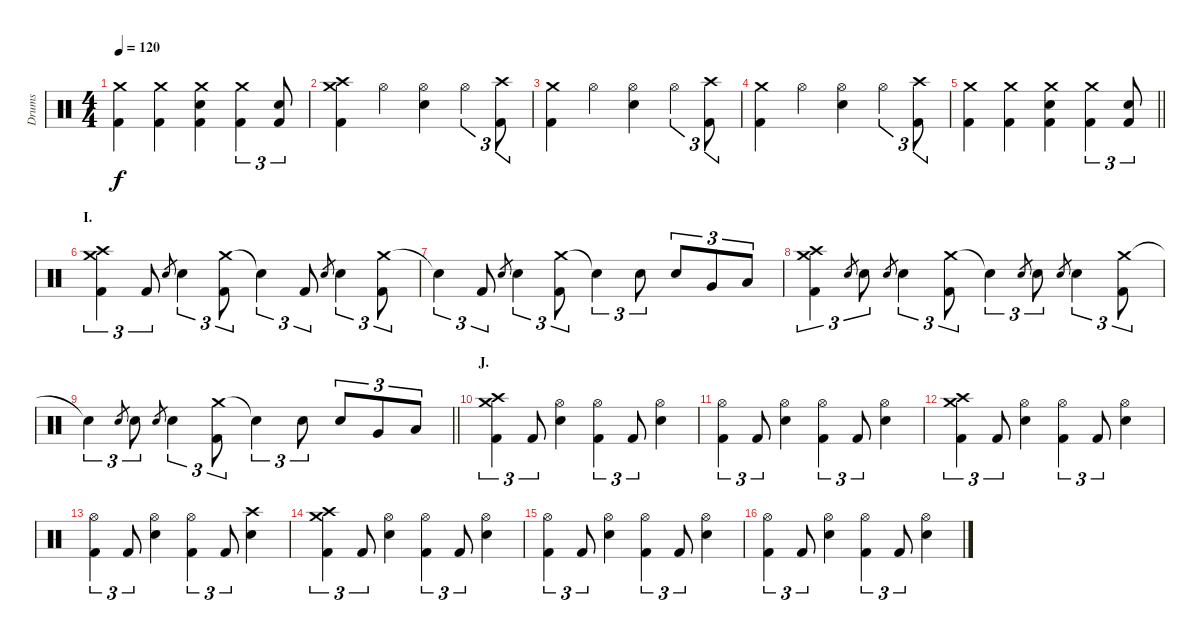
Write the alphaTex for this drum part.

\track ("Drums" "Drums") {instrument percussion}
\staff {score}
\articulation defaults
\ts (4 4)
\tempo 120
\clef neutral
\ks c
("Crash medium (hit)" "Kick (hit) 2").4{dy f} ("Crash medium (hit)" "Kick (hit) 2").4 ("Crash medium (hit)" "Electric Snare (hit)" "Kick (hit) 2").4 ("Crash medium (hit)" "Kick (hit) 2").4{tu (3 2)} ("Electric Snare (hit)" "Kick (hit) 2").8{tu (3 2)} |
("Crash medium (hit)" "Crash high (hit)" "Kick (hit) 2").4 "Hi-Hat (open)".4 ("Hi-Hat (open)" "Electric Snare (hit)").4 "Hi-Hat (open)".4{tu (3 2)} ("Crash high (hit)" "Kick (hit) 2").8{tu (3 2)} |
("Crash medium (hit)" "Kick (hit) 2").4 "Hi-Hat (open)".4 ("Hi-Hat (open)" "Electric Snare (hit)").4 "Hi-Hat (open)".4{tu (3 2)} ("Crash high (hit)" "Kick (hit) 2").8{tu (3 2)} |
("Crash medium (hit)" "Kick (hit) 2").4 "Hi-Hat (open)".4 ("Hi-Hat (open)" "Electric Snare (hit)").4 "Hi-Hat (open)".4{tu (3 2)} ("Crash high (hit)" "Kick (hit) 2").8{tu (3 2)} |
\barLineRight lightlight
("Crash medium (hit)" "Kick (hit) 2").4 ("Crash medium (hit)" "Kick (hit) 2").4 ("Crash medium (hit)" "Electric Snare (hit)" "Kick (hit) 2").4 ("Crash medium (hit)" "Kick (hit) 2").4{tu (3 2)} ("Electric Snare (hit)" "Kick (hit) 2").8{tu (3 2)} |
\section ("" "I.")
("Crash medium (hit)" "Crash high (hit)" "Kick (hit) 2").4{tu (3 2)} "Kick (hit) 2".8{tu (3 2)} "Electric Snare (hit)".8{gr} "Electric Snare (hit)".4{tu (3 2)} ("Crash medium (hit)" "Kick (hit) 2").8{tu (3 2)} "Snare (hit)"{t}.4{tu (3 2)} "Kick (hit) 2".8{tu (3 2)} "Electric Snare (hit)".8{gr} "Electric Snare (hit)".4{tu (3 2)} ("Crash medium (hit)" "Kick (hit) 2").8{tu (3 2)} |
"Snare (hit)"{t}.4{tu (3 2)} "Kick (hit) 2".8{tu (3 2)} "Electric Snare (hit)".8{gr} "Electric Snare (hit)".4{tu (3 2)} ("Crash medium (hit)" "Kick (hit) 2").8{tu (3 2)} "Snare (hit)"{t}.4{tu (3 2)} "Electric Snare (hit)".8{tu (3 2)} "Electric Snare (hit)".8{tu (3 2)} "Very Low Tom (hit)".8{tu (3 2)} "Low Floor Tom (hit)".8{tu (3 2)} |
("Crash medium (hit)" "Crash high (hit)" "Kick (hit) 2").4{tu (3 2)} "Electric Snare (hit)".8{gr} "Electric Snare (hit)".8{tu (3 2)} "Electric Snare (hit)".8{gr} "Electric Snare (hit)".4{tu (3 2)} ("Crash medium (hit)" "Kick (hit) 2").8{tu (3 2)} "Snare (hit)"{t}.4{tu (3 2)} "Electric Snare (hit)".8{gr} "Electric Snare (hit)".8{tu (3 2)} "Electric Snare (hit)".8{gr} "Electric Snare (hit)".4{tu (3 2)} ("Crash medium (hit)" "Kick (hit) 2").8{tu (3 2)} |
\barLineRight lightlight "Snare (hit)"{t}.4{tu (3 2)} "Electric Snare (hit)".8{gr} "Electric Snare (hit)".8{tu (3 2)} "Electric Snare (hit)".8{gr} "Electric Snare (hit)".4{tu (3 2)}
("Crash medium (hit)" "Kick (hit) 2").8{tu (3 2)} "Snare (hit)"{t}.4{tu (3 2)} "Electric Snare (hit)".8{tu (3 2)} "Electric Snare (hit)".8{tu (3 2)} "Very Low Tom (hit)".8{tu (3 2)} "Low Floor Tom (hit)".8{tu (3 2)} |
\section ("" "J.")
("Crash medium (hit)" "Crash high (hit)" "Kick (hit) 2").4{tu (3 2)} "Kick (hit) 2".8{tu (3 2)} ("Hi-Hat (open)" "Electric Snare (hit)").4 ("Hi-Hat (open)" "Kick (hit) 2").4{tu (3 2)} "Kick (hit) 2".8{tu (3 2)} ("Hi-Hat (open)" "Electric Snare (hit)").4 |
("Hi-Hat (open)" "Kick (hit) 2").4{tu (3 2)} "Kick (hit) 2".8{tu (3 2)} ("Hi-Hat (open)" "Electric Snare (hit)").4 ("Hi-Hat (open)" "Kick (hit) 2").4{tu (3 2)} "Kick (hit) 2".8{tu (3 2)} ("Hi-Hat (open)" "Electric Snare (hit)").4 |
("Crash medium (hit)" "Crash high (hit)" "Kick (hit) 2").4{tu (3 2)} "Kick (hit) 2".8{tu (3 2)} ("Hi-Hat (open)" "Electric Snare (hit)").4 ("Hi-Hat (open)" "Kick (hit) 2").4{tu (3 2)} "Kick (hit) 2".8{tu (3 2)} ("Hi-Hat (open)" "Electric Snare (hit)").4 |
("Hi-Hat (open)" "Kick (hit) 2").4{tu (3 2)} "Kick (hit) 2".8{tu (3 2)} ("Hi-Hat (open)" "Electric Snare (hit)").4 ("Hi-Hat (open)" "Kick (hit) 2").4{tu (3 2)} "Kick (hit) 2".8{tu (3 2)} ("Crash high (hit)" "Electric Snare (hit)").4 |
("Crash medium (hit)" "Crash high (hit)" "Kick (hit) 2").4{tu (3 2)} "Kick (hit) 2".8{tu (3 2)} ("Hi-Hat (open)" "Electric Snare (hit)").4 ("Hi-Hat (open)" "Kick (hit) 2").4{tu (3 2)} "Kick (hit) 2".8{tu (3 2)} ("Hi-Hat (open)" "Electric Snare (hit)").4 |
("Hi-Hat (open)" "Kick (hit) 2").4{tu (3 2)} "Kick (hit) 2".8{tu (3 2)} ("Hi-Hat (open)" "Electric Snare (hit)").4 ("Hi-Hat (open)" "Kick (hit) 2").4{tu (3 2)} "Kick (hit) 2".8{tu (3 2)} ("Hi-Hat (open)" "Electric Snare (hit)").4 |
("Hi-Hat (open)" "Kick (hit) 2").4{tu (3 2)} "Kick (hit) 2".8{tu (3 2)} ("Hi-Hat (open)" "Electric Snare (hit)").4 ("Hi-Hat (open)" "Kick (hit) 2").4{tu (3 2)} "Kick (hit) 2".8{tu (3 2)} ("Hi-Hat (open)" "Electric Snare (hit)").4
